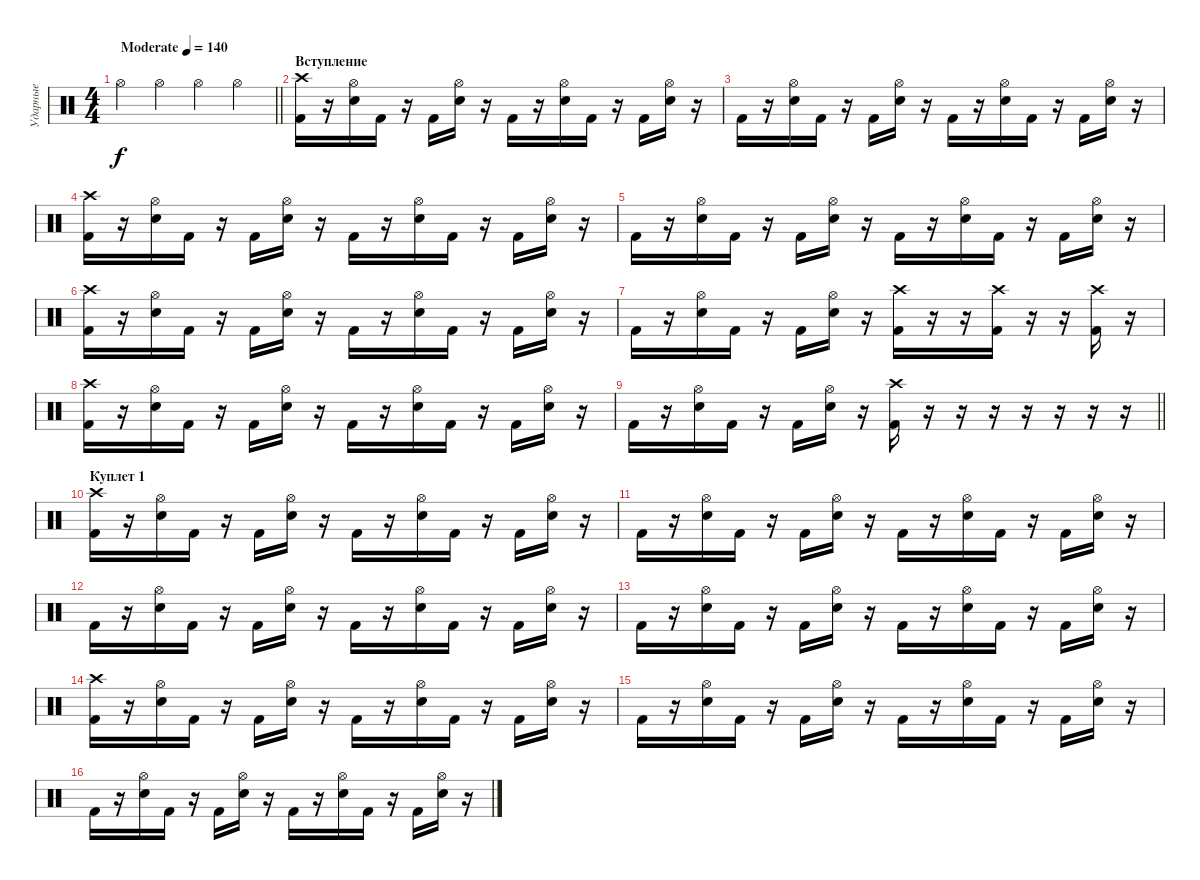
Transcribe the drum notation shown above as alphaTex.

\track ("Ударные" "Ударные") {instrument percussion}
\staff {score}
\articulation defaults
\ts (4 4)
\tempo (140 "Moderate")
\clef neutral
\barLineRight lightlight
\ks c "Hi-Hat (open)".4{dy f} "Hi-Hat (open)".4 "Hi-Hat (open)".4 "Hi-Hat (open)".4
|
\section ("" "Вступление")
("Kick (hit) 2" "Crash high (hit)").16 r.16 ("Electric Snare (hit)" "Hi-Hat (open)").16 "Kick (hit) 2".16 r.16 "Kick (hit) 2".16 ("Electric Snare (hit)" "Hi-Hat (open)").16 r.16 "Kick (hit) 2".16 r.16 ("Electric Snare (hit)" "Hi-Hat (open)").16 "Kick (hit) 2".16 r.16 "Kick (hit) 2".16 ("Electric Snare (hit)" "Hi-Hat (open)").16 r.16 |
"Kick (hit) 2".16 r.16 ("Electric Snare (hit)" "Hi-Hat (open)").16 "Kick (hit) 2".16 r.16 "Kick (hit) 2".16 ("Electric Snare (hit)" "Hi-Hat (open)").16 r.16 "Kick (hit) 2".16 r.16 ("Electric Snare (hit)" "Hi-Hat (open)").16 "Kick (hit) 2".16 r.16 "Kick (hit) 2".16 ("Electric Snare (hit)" "Hi-Hat (open)").16 r.16 |
("Kick (hit) 2" "Crash high (hit)").16 r.16 ("Electric Snare (hit)" "Hi-Hat (open)").16 "Kick (hit) 2".16 r.16 "Kick (hit) 2".16 ("Electric Snare (hit)" "Hi-Hat (open)").16 r.16 "Kick (hit) 2".16 r.16 ("Electric Snare (hit)" "Hi-Hat (open)").16 "Kick (hit) 2".16 r.16 "Kick (hit) 2".16 ("Electric Snare (hit)" "Hi-Hat (open)").16 r.16 |
"Kick (hit) 2".16 r.16 ("Electric Snare (hit)" "Hi-Hat (open)").16 "Kick (hit) 2".16 r.16 "Kick (hit) 2".16 ("Electric Snare (hit)" "Hi-Hat (open)").16 r.16 "Kick (hit) 2".16 r.16 ("Electric Snare (hit)" "Hi-Hat (open)").16 "Kick (hit) 2".16 r.16 "Kick (hit) 2".16 ("Electric Snare (hit)" "Hi-Hat (open)").16 r.16 |
("Kick (hit) 2" "Crash high (hit)").16 r.16 ("Electric Snare (hit)" "Hi-Hat (open)").16 "Kick (hit) 2".16 r.16 "Kick (hit) 2".16 ("Electric Snare (hit)" "Hi-Hat (open)").16 r.16 "Kick (hit) 2".16 r.16 ("Electric Snare (hit)" "Hi-Hat (open)").16 "Kick (hit) 2".16 r.16 "Kick (hit) 2".16 ("Electric Snare (hit)" "Hi-Hat (open)").16 r.16 |
"Kick (hit) 2".16 r.16 ("Electric Snare (hit)" "Hi-Hat (open)").16 "Kick (hit) 2".16 r.16 "Kick (hit) 2".16 ("Electric Snare (hit)" "Hi-Hat (open)").16 r.16 ("Kick (hit) 2" "Crash high (hit)").16 r.16 r.16 ("Kick (hit) 2" "Crash high (hit)").16 r.16 r.16 ("Kick (hit) 2" "Crash high (hit)").16 r.16 |
("Kick (hit) 2" "Crash high (hit)").16 r.16 ("Electric Snare (hit)" "Hi-Hat (open)").16 "Kick (hit) 2".16 r.16 "Kick (hit) 2".16 ("Electric Snare (hit)" "Hi-Hat (open)").16 r.16 "Kick (hit) 2".16 r.16 ("Electric Snare (hit)" "Hi-Hat (open)").16 "Kick (hit) 2".16 r.16 "Kick (hit) 2".16 ("Electric Snare (hit)" "Hi-Hat (open)").16 r.16 |
\barLineRight lightlight "Kick (hit) 2".16
r.16 ("Electric Snare (hit)" "Hi-Hat (open)").16 "Kick (hit) 2".16 r.16 "Kick (hit) 2".16 ("Electric Snare (hit)" "Hi-Hat (open)").16 r.16 ("Kick (hit) 2" "Crash high (hit)").16 r.16 r.16 r.16 r.16 r.16 r.16 r.16 |
\section ("" "Куплет 1")
("Kick (hit) 2" "Crash high (hit)").16 r.16 ("Electric Snare (hit)" "Hi-Hat (open)").16 "Kick (hit) 2".16 r.16 "Kick (hit) 2".16 ("Electric Snare (hit)" "Hi-Hat (open)").16 r.16 "Kick (hit) 2".16 r.16 ("Electric Snare (hit)" "Hi-Hat (open)").16 "Kick (hit) 2".16 r.16 "Kick (hit) 2".16 ("Electric Snare (hit)" "Hi-Hat (open)").16 r.16 |
"Kick (hit) 2".16 r.16 ("Electric Snare (hit)" "Hi-Hat (open)").16 "Kick (hit) 2".16 r.16 "Kick (hit) 2".16 ("Electric Snare (hit)" "Hi-Hat (open)").16 r.16 "Kick (hit) 2".16 r.16 ("Electric Snare (hit)" "Hi-Hat (open)").16 "Kick (hit) 2".16 r.16 "Kick (hit) 2".16 ("Electric Snare (hit)" "Hi-Hat (open)").16 r.16 |
"Kick (hit) 2".16 r.16 ("Electric Snare (hit)" "Hi-Hat (open)").16 "Kick (hit) 2".16 r.16 "Kick (hit) 2".16 ("Electric Snare (hit)" "Hi-Hat (open)").16 r.16 "Kick (hit) 2".16 r.16 ("Electric Snare (hit)" "Hi-Hat (open)").16 "Kick (hit) 2".16 r.16 "Kick (hit) 2".16 ("Electric Snare (hit)" "Hi-Hat (open)").16 r.16 |
"Kick (hit) 2".16 r.16 ("Electric Snare (hit)" "Hi-Hat (open)").16 "Kick (hit) 2".16 r.16 "Kick (hit) 2".16 ("Electric Snare (hit)" "Hi-Hat (open)").16 r.16 "Kick (hit) 2".16 r.16 ("Electric Snare (hit)" "Hi-Hat (open)").16 "Kick (hit) 2".16 r.16 "Kick (hit) 2".16 ("Electric Snare (hit)" "Hi-Hat (open)").16 r.16 |
("Kick (hit) 2" "Crash high (hit)").16 r.16 ("Electric Snare (hit)" "Hi-Hat (open)").16 "Kick (hit) 2".16 r.16 "Kick (hit) 2".16 ("Electric Snare (hit)" "Hi-Hat (open)").16 r.16 "Kick (hit) 2".16 r.16 ("Electric Snare (hit)" "Hi-Hat (open)").16 "Kick (hit) 2".16 r.16 "Kick (hit) 2".16 ("Electric Snare (hit)" "Hi-Hat (open)").16 r.16 |
"Kick (hit) 2".16 r.16 ("Electric Snare (hit)" "Hi-Hat (open)").16 "Kick (hit) 2".16 r.16 "Kick (hit) 2".16 ("Electric Snare (hit)" "Hi-Hat (open)").16 r.16 "Kick (hit) 2".16 r.16 ("Electric Snare (hit)" "Hi-Hat (open)").16 "Kick (hit) 2".16 r.16 "Kick (hit) 2".16 ("Electric Snare (hit)" "Hi-Hat (open)").16 r.16 |
"Kick (hit) 2".16 r.16 ("Electric Snare (hit)" "Hi-Hat (open)").16 "Kick (hit) 2".16 r.16 "Kick (hit) 2".16 ("Electric Snare (hit)" "Hi-Hat (open)").16 r.16 "Kick (hit) 2".16 r.16 ("Electric Snare (hit)" "Hi-Hat (open)").16 "Kick (hit) 2".16 r.16 "Kick (hit) 2".16 ("Electric Snare (hit)" "Hi-Hat (open)").16 r.16
